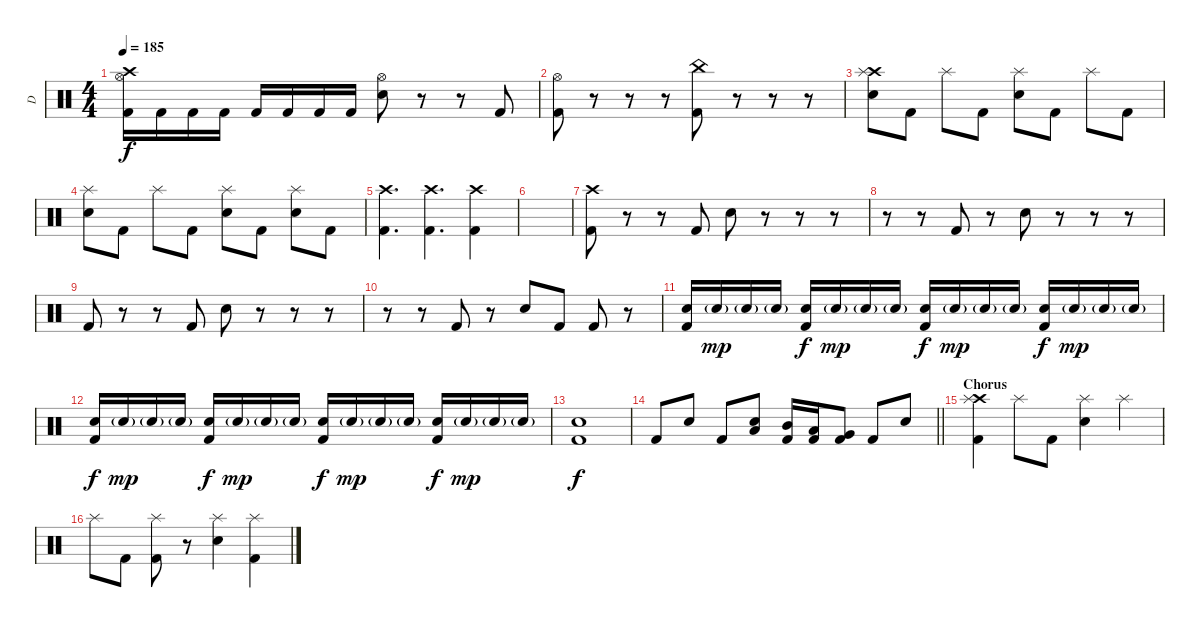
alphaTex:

\track ("D" "D") {instrument percussion}
\staff {score}
\articulation defaults
\ts (4 4)
\tempo 185
\clef neutral
\ks c
("Crash high (hit)" "Kick (hit) 2" "Hi-Hat (open)").16{dy f} "Kick (hit) 2".16 "Kick (hit) 2".16 "Kick (hit) 2".16 "Kick (hit) 2".16 "Kick (hit) 2".16 "Kick (hit) 2".16 "Kick (hit) 2".16 ("Electric Snare (hit)" "Hi-Hat (open)").8 r.8 r.8 "Kick (hit) 2".8 |
("Kick (hit) 2" "Hi-Hat (open)").8 r.8 r.8 r.8 ("Kick (hit) 2" "China (hit)").8 r.8 r.8 r.8 |
("Crash high (hit)" "Electric Snare (hit)" "Splash (hit)").8 "Kick (hit) 2".8 "Splash (hit)".8 "Kick (hit) 2".8 ("Electric Snare (hit)" "Splash (hit)").8 "Kick (hit) 2".8 "Splash (hit)".8 "Kick (hit) 2".8 |
("Electric Snare (hit)" "Splash (hit)").8 "Kick (hit) 2".8 "Splash (hit)".8 "Kick (hit) 2".8 ("Electric Snare (hit)" "Splash (hit)").8 "Kick (hit) 2".8 ("Electric Snare (hit)" "Splash (hit)").8 "Kick (hit) 2".8 |
("Crash high (hit)" "Kick (hit) 2").4{d} ("Crash high (hit)" "Kick (hit) 2").4{d} ("Crash high (hit)" "Kick (hit) 2").4 |
|
("Crash high (hit)" "Kick (hit) 2").8 r.8 r.8 "Kick (hit) 2".8 "Electric Snare (hit)".8 r.8 r.8 r.8 |
r.8 r.8 "Kick (hit) 2".8 r.8 "Electric Snare (hit)".8 r.8 r.8 r.8 |
"Kick (hit) 2".8 r.8 r.8 "Kick (hit) 2".8 "Electric Snare (hit)".8 r.8 r.8 r.8 |
r.8 r.8 "Kick (hit) 2".8 r.8 "Electric Snare (hit)".8 "Kick (hit) 2".8 "Kick (hit) 2".8 r.8 |
("Electric Snare (hit)" "Kick (hit) 2").16 "Electric Snare (hit)"{g}.16{dy mp} "Electric Snare (hit)"{g}.16 "Electric Snare (hit)"{g}.16 ("Electric Snare (hit)" "Kick (hit) 2").16{dy f} "Electric Snare (hit)"{g}.16{dy mp} "Electric Snare (hit)"{g}.16 "Electric Snare (hit)"{g}.16 ("Electric Snare (hit)" "Kick (hit) 2").16{dy f} "Electric Snare (hit)"{g}.16{dy mp} "Electric Snare (hit)"{g}.16 "Electric Snare (hit)"{g}.16 ("Electric Snare (hit)" "Kick (hit) 2").16{dy f} "Electric Snare (hit)"{g}.16{dy mp} "Electric Snare (hit)"{g}.16 "Electric Snare (hit)"{g}.16 |
("Electric Snare (hit)" "Kick (hit) 2").16{dy f} "Electric Snare (hit)"{g}.16{dy mp} "Electric Snare (hit)"{g}.16 "Electric Snare (hit)"{g}.16 ("Electric Snare (hit)" "Kick (hit) 2").16{dy f} "Electric Snare (hit)"{g}.16{dy mp} "Electric Snare (hit)"{g}.16 "Electric Snare (hit)"{g}.16 ("Electric Snare (hit)" "Kick (hit) 2").16{dy f} "Electric Snare (hit)"{g}.16{dy mp} "Electric Snare (hit)"{g}.16 "Electric Snare (hit)"{g}.16 ("Electric Snare (hit)" "Kick (hit) 2").16{dy f} "Electric Snare (hit)"{g}.16{dy mp} "Electric Snare (hit)"{g}.16 "Electric Snare (hit)"{g}.16 |
("Electric Snare (hit)" "Kick (hit) 2").1{dy f} |
\barLineRight lightlight "Kick (hit) 2".8 "Electric Snare (hit)".8 "Kick (hit) 2".8
("Electric Snare (hit)" "Low Tom (hit)").8 ("Mid Tom (hit)" "Kick (hit) 2").16 ("Low Tom (hit)" "Kick (hit) 2").16 ("Very Low Tom (hit)" "Kick (hit) 2").8 "Kick (hit) 2".8 "Electric Snare (hit)".8 |
\section ("" "Chorus")
("Crash high (hit)" "Kick (hit) 2" "Splash (hit)").4 "Splash (hit)".8 "Kick (hit) 2".8 ("Electric Snare (hit)" "Splash (hit)").4 "Splash (hit)".4 |
"Splash (hit)".8 "Kick (hit) 2".8 ("Kick (hit) 2" "Splash (hit)").8 r.8 ("Electric Snare (hit)" "Splash (hit)").4 ("Kick (hit) 2" "Splash (hit)").4
